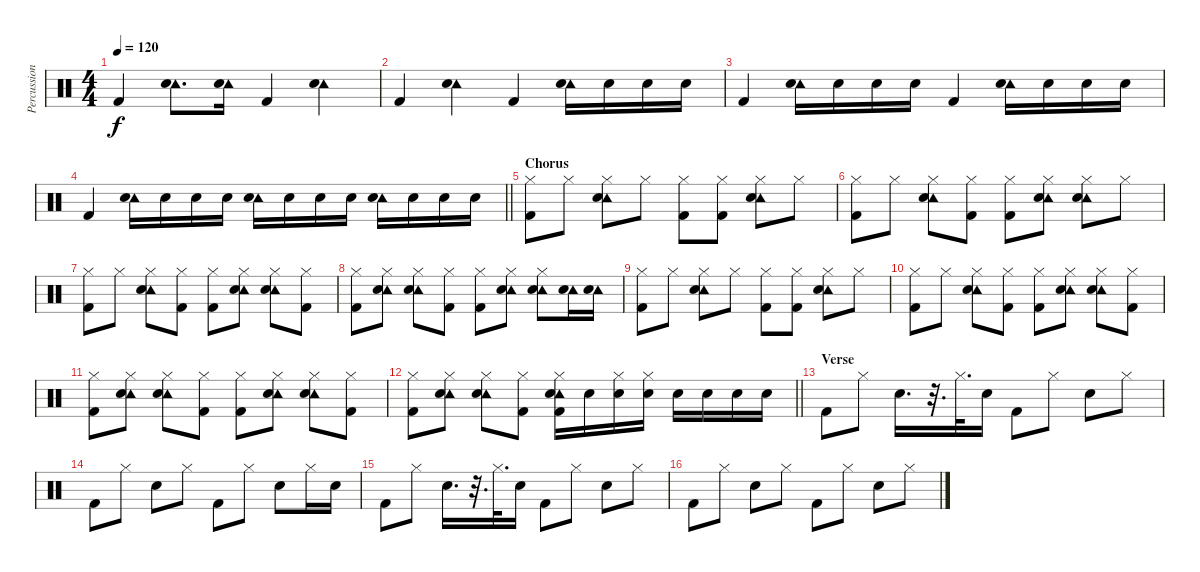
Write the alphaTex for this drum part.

\track ("Percussion" "Percussion") {instrument percussion}
\staff {score}
\articulation defaults
\ts (4 4)
\tempo 120
\clef neutral
\ks c "Kick (hit) 2".4{dy f}
("Tambourine (hit)" "Snare (hit) 2").8{d} ("Tambourine (hit)" "Snare (hit) 2").16 "Kick (hit) 2".4 ("Tambourine (hit)" "Snare (hit) 2").4 |
"Kick (hit) 2".4 ("Tambourine (hit)" "Snare (hit) 2").4 "Kick (hit) 2".4 ("Tambourine (hit)" "Snare (hit) 2").16 "Snare (hit) 2".16 "Snare (hit) 2".16 "Snare (hit) 2".16 |
"Kick (hit) 2".4 ("Tambourine (hit)" "Snare (hit) 2").16 "Snare (hit) 2".16 "Snare (hit) 2".16 "Snare (hit) 2".16 "Kick (hit) 2".4 ("Tambourine (hit)" "Snare (hit) 2").16 "Snare (hit) 2".16 "Snare (hit) 2".16 "Snare (hit) 2".16 |
\barLineRight lightlight "Kick (hit) 2".4
("Tambourine (hit)" "Snare (hit) 2").16 "Snare (hit) 2".16 "Snare (hit) 2".16 "Snare (hit) 2".16 ("Tambourine (hit)" "Snare (hit) 2").16 "Snare (hit) 2".16 "Snare (hit) 2".16 "Snare (hit) 2".16 ("Tambourine (hit)" "Snare (hit) 2").16 "Snare (hit) 2".16 "Snare (hit) 2".16 "Snare (hit) 2".16 |
\section ("" "Chorus")
("Hi-Hat (closed)" "Kick (hit) 2").8 "Hi-Hat (closed)".8 ("Hi-Hat (closed)" "Tambourine (hit)" "Snare (hit) 2").8 "Hi-Hat (closed)".8 ("Hi-Hat (closed)" "Kick (hit) 2").8 ("Hi-Hat (closed)" "Kick (hit) 2").8 ("Hi-Hat (closed)" "Tambourine (hit)" "Snare (hit) 2").8 "Hi-Hat (closed)".8 |
("Hi-Hat (closed)" "Kick (hit) 2").8 "Hi-Hat (closed)".8 ("Hi-Hat (closed)" "Tambourine (hit)" "Snare (hit) 2").8 ("Hi-Hat (closed)" "Kick (hit) 2").8 ("Hi-Hat (closed)" "Kick (hit) 2").8 ("Hi-Hat (closed)" "Tambourine (hit)" "Snare (hit) 2").8 ("Hi-Hat (closed)" "Tambourine (hit)" "Snare (hit) 2").8 "Hi-Hat (closed)".8 |
("Hi-Hat (closed)" "Kick (hit) 2").8 "Hi-Hat (closed)".8 ("Hi-Hat (closed)" "Tambourine (hit)" "Snare (hit) 2").8 ("Hi-Hat (closed)" "Kick (hit) 2").8 ("Hi-Hat (closed)" "Kick (hit) 2").8 ("Hi-Hat (closed)" "Tambourine (hit)" "Snare (hit) 2").8 ("Hi-Hat (closed)" "Tambourine (hit)" "Snare (hit) 2").8 ("Hi-Hat (closed)" "Kick (hit) 2").8 |
("Hi-Hat (closed)" "Kick (hit) 2").8 ("Hi-Hat (closed)" "Tambourine (hit)" "Snare (hit) 2").8 ("Hi-Hat (closed)" "Tambourine (hit)" "Snare (hit) 2").8 ("Hi-Hat (closed)" "Kick (hit) 2").8 ("Hi-Hat (closed)" "Kick (hit) 2").8 ("Hi-Hat (closed)" "Tambourine (hit)" "Snare (hit) 2").8 ("Hi-Hat (closed)" "Tambourine (hit)" "Snare (hit) 2").8 ("Tambourine (hit)" "Snare (hit) 2").16 ("Tambourine (hit)" "Snare (hit) 2").16 |
("Hi-Hat (closed)" "Kick (hit) 2").8 "Hi-Hat (closed)".8 ("Hi-Hat (closed)" "Tambourine (hit)" "Snare (hit) 2").8 "Hi-Hat (closed)".8 ("Hi-Hat (closed)" "Kick (hit) 2").8 ("Hi-Hat (closed)" "Kick (hit) 2").8 ("Hi-Hat (closed)" "Tambourine (hit)" "Snare (hit) 2").8 "Hi-Hat (closed)".8 |
("Hi-Hat (closed)" "Kick (hit) 2").8 "Hi-Hat (closed)".8 ("Hi-Hat (closed)" "Tambourine (hit)" "Snare (hit) 2").8 ("Hi-Hat (closed)" "Kick (hit) 2").8 ("Hi-Hat (closed)" "Kick (hit) 2").8 ("Hi-Hat (closed)" "Tambourine (hit)" "Snare (hit) 2").8 ("Hi-Hat (closed)" "Tambourine (hit)" "Snare (hit) 2").8 ("Hi-Hat (closed)" "Kick (hit) 2").8 |
("Hi-Hat (closed)" "Kick (hit) 2").8 ("Hi-Hat (closed)" "Tambourine (hit)" "Snare (hit) 2").8 ("Hi-Hat (closed)" "Tambourine (hit)" "Snare (hit) 2").8 ("Hi-Hat (closed)" "Kick (hit) 2").8 ("Hi-Hat (closed)" "Kick (hit) 2").8 ("Hi-Hat (closed)" "Tambourine (hit)" "Snare (hit) 2").8 ("Hi-Hat (closed)" "Tambourine (hit)" "Snare (hit) 2").8 ("Hi-Hat (closed)" "Kick (hit) 2").8 |
\barLineRight lightlight
("Hi-Hat (closed)" "Kick (hit) 2").8 ("Hi-Hat (closed)" "Tambourine (hit)" "Snare (hit) 2").8 ("Hi-Hat (closed)" "Tambourine (hit)" "Snare (hit) 2").8 ("Hi-Hat (closed)" "Kick (hit) 2").8 ("Hi-Hat (closed)" "Tambourine (hit)" "Snare (hit) 2" "Kick (hit) 2").16 "Snare (hit) 2".16 ("Hi-Hat (closed)" "Snare (hit) 2").16 ("Hi-Hat (closed)" "Snare (hit) 2").16 "Snare (hit) 2".16 "Snare (hit) 2".16 "Snare (hit) 2".16 "Snare (hit) 2".16 |
\section ("" "Verse")
"Kick (hit) 2".8 "Hi-Hat (closed)".8 "Snare (hit) 2".16{d} r.32{d} "Hi-Hat (closed)".32{d} "Snare (hit) 2".16 "Kick (hit) 2".8 "Hi-Hat (closed)".8 "Snare (hit) 2".8 "Hi-Hat (closed)".8 |
"Kick (hit) 2".8 "Hi-Hat (closed)".8 "Snare (hit) 2".8 "Hi-Hat (closed)".8 "Kick (hit) 2".8 "Hi-Hat (closed)".8 "Snare (hit) 2".8 "Hi-Hat (closed)".16 "Snare (hit) 2".16 |
"Kick (hit) 2".8 "Hi-Hat (closed)".8 "Snare (hit) 2".16{d} r.32{d} "Hi-Hat (closed)".32{d} "Snare (hit) 2".16 "Kick (hit) 2".8 "Hi-Hat (closed)".8 "Snare (hit) 2".8 "Hi-Hat (closed)".8 |
"Kick (hit) 2".8 "Hi-Hat (closed)".8 "Snare (hit) 2".8 "Hi-Hat (closed)".8 "Kick (hit) 2".8 "Hi-Hat (closed)".8 "Snare (hit) 2".8 "Hi-Hat (closed)".8
